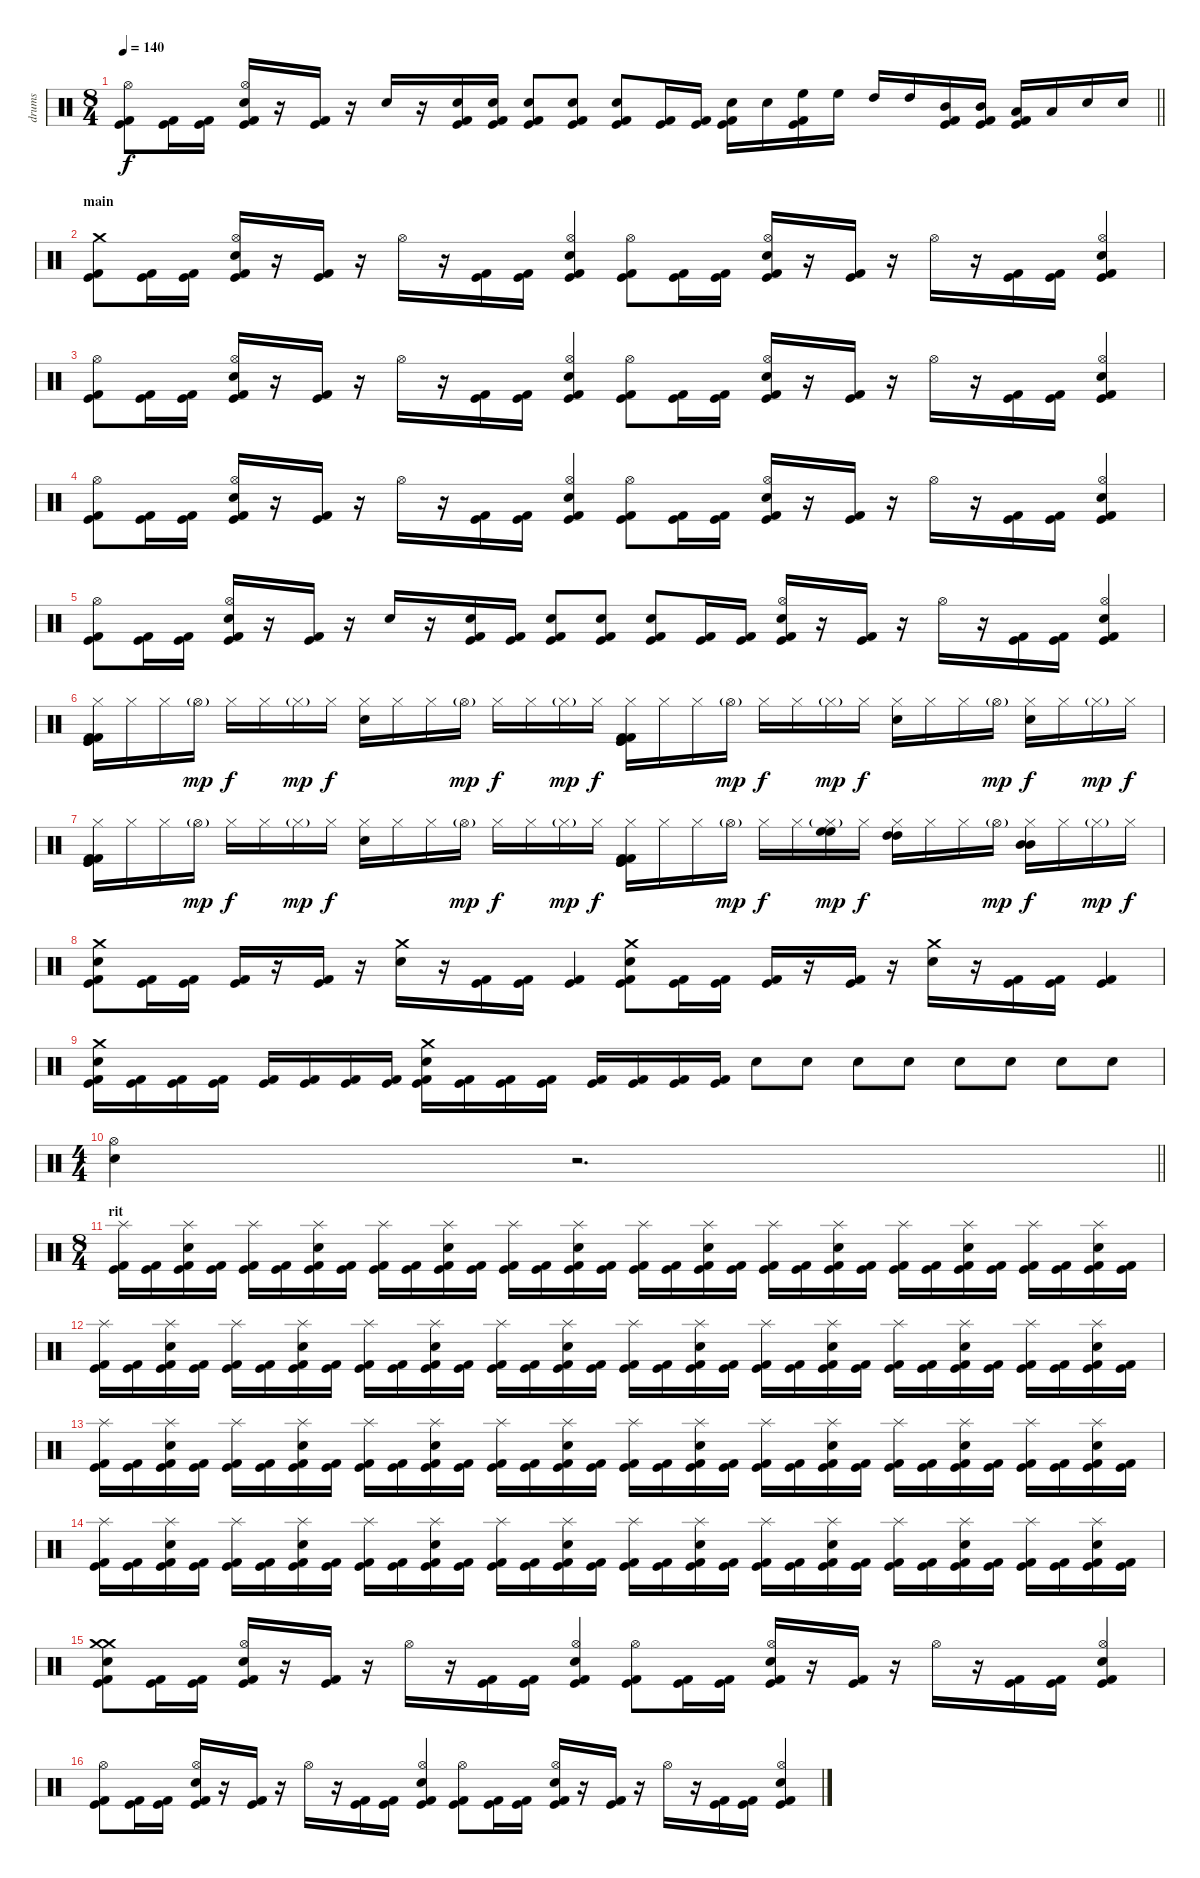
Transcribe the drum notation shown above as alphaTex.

\track ("drums" "drums") {instrument percussion}
\staff {score}
\articulation defaults
\ts (8 4)
\tempo 140
\clef neutral
\barLineRight lightlight
\ks c
("Kick (hit) 2" "Kick (hit)" "Hi-Hat (open)").8{dy f} ("Kick (hit) 2" "Kick (hit)").16 ("Kick (hit) 2" "Kick (hit)").16 ("Kick (hit) 2" "Kick (hit)" "Snare (hit) 2" "Hi-Hat (open)").16 r.16 ("Kick (hit) 2" "Kick (hit)").16 r.16 "Snare (hit) 2".16 r.16 ("Kick (hit)" "Kick (hit) 2" "Snare (hit) 2").16 ("Kick (hit) 2" "Kick (hit)" "Snare (hit) 2").16 ("Kick (hit)" "Kick (hit) 2" "Snare (hit) 2").8 ("Kick (hit)" "Kick (hit) 2" "Snare (hit) 2").8 ("Kick (hit) 2" "Kick (hit)" "Snare (hit) 2").8 ("Kick (hit) 2" "Kick (hit)").16 ("Kick (hit) 2" "Kick (hit)").16 ("Kick (hit) 2" "Kick (hit)" "Snare (hit) 2").16 "Snare (hit) 2".16 ("Kick (hit) 2" "Kick (hit)" "High Floor Tom (hit)").16 "High Floor Tom (hit)".16 "High Tom (hit)".16 "High Tom (hit)".16 ("Kick (hit)" "Kick (hit) 2" "Mid Tom (hit)").16 ("Kick (hit) 2" "Kick (hit)" "Mid Tom (hit)").16 ("Kick (hit)" "Kick (hit) 2" "Low Tom (hit)").16 "Low Tom (hit)".16 "Snare (hit) 2".16 "Snare (hit) 2".16 |
\section ("" "main")
("Kick (hit) 2" "Kick (hit)" "Crash medium (hit)").8 ("Kick (hit) 2" "Kick (hit)").16 ("Kick (hit) 2" "Kick (hit)").16 ("Kick (hit) 2" "Kick (hit)" "Snare (hit) 2" "Hi-Hat (open)").16 r.16 ("Kick (hit) 2" "Kick (hit)").16 r.16 "Hi-Hat (open)".16 r.16 ("Kick (hit)" "Kick (hit) 2").16 ("Kick (hit) 2" "Kick (hit)").16 ("Kick (hit)" "Kick (hit) 2" "Snare (hit) 2" "Hi-Hat (open)").4 ("Kick (hit) 2" "Kick (hit)" "Hi-Hat (open)").8 ("Kick (hit) 2" "Kick (hit)").16 ("Kick (hit) 2" "Kick (hit)").16 ("Kick (hit) 2" "Kick (hit)" "Snare (hit) 2" "Hi-Hat (open)").16 r.16 ("Kick (hit) 2" "Kick (hit)").16 r.16 "Hi-Hat (open)".16 r.16 ("Kick (hit)" "Kick (hit) 2").16 ("Kick (hit) 2" "Kick (hit)").16 ("Kick (hit)" "Kick (hit) 2" "Snare (hit) 2" "Hi-Hat (open)").4 |
("Kick (hit) 2" "Kick (hit)" "Hi-Hat (open)").8 ("Kick (hit) 2" "Kick (hit)").16 ("Kick (hit) 2" "Kick (hit)").16 ("Kick (hit) 2" "Kick (hit)" "Snare (hit) 2" "Hi-Hat (open)").16 r.16 ("Kick (hit) 2" "Kick (hit)").16 r.16 "Hi-Hat (open)".16 r.16 ("Kick (hit)" "Kick (hit) 2").16 ("Kick (hit) 2" "Kick (hit)").16 ("Kick (hit)" "Kick (hit) 2" "Snare (hit) 2" "Hi-Hat (open)").4 ("Kick (hit) 2" "Kick (hit)" "Hi-Hat (open)").8 ("Kick (hit) 2" "Kick (hit)").16 ("Kick (hit) 2" "Kick (hit)").16 ("Kick (hit) 2" "Kick (hit)" "Snare (hit) 2" "Hi-Hat (open)").16 r.16 ("Kick (hit) 2" "Kick (hit)").16 r.16 "Hi-Hat (open)".16 r.16 ("Kick (hit)" "Kick (hit) 2").16 ("Kick (hit) 2" "Kick (hit)").16 ("Kick (hit)" "Kick (hit) 2" "Snare (hit) 2" "Hi-Hat (open)").4 |
("Kick (hit) 2" "Kick (hit)" "Hi-Hat (open)").8 ("Kick (hit) 2" "Kick (hit)").16 ("Kick (hit) 2" "Kick (hit)").16 ("Kick (hit) 2" "Kick (hit)" "Snare (hit) 2" "Hi-Hat (open)").16 r.16 ("Kick (hit) 2" "Kick (hit)").16 r.16 "Hi-Hat (open)".16 r.16 ("Kick (hit)" "Kick (hit) 2").16 ("Kick (hit) 2" "Kick (hit)").16 ("Kick (hit)" "Kick (hit) 2" "Snare (hit) 2" "Hi-Hat (open)").4 ("Kick (hit) 2" "Kick (hit)" "Hi-Hat (open)").8 ("Kick (hit) 2" "Kick (hit)").16 ("Kick (hit) 2" "Kick (hit)").16 ("Kick (hit) 2" "Kick (hit)" "Snare (hit) 2" "Hi-Hat (open)").16 r.16 ("Kick (hit) 2" "Kick (hit)").16 r.16 "Hi-Hat (open)".16 r.16 ("Kick (hit)" "Kick (hit) 2").16 ("Kick (hit) 2" "Kick (hit)").16 ("Kick (hit)" "Kick (hit) 2" "Snare (hit) 2" "Hi-Hat (open)").4 |
("Kick (hit) 2" "Kick (hit)" "Hi-Hat (open)").8 ("Kick (hit) 2" "Kick (hit)").16 ("Kick (hit) 2" "Kick (hit)").16 ("Kick (hit) 2" "Kick (hit)" "Snare (hit) 2" "Hi-Hat (open)").16 r.16 ("Kick (hit) 2" "Kick (hit)").16 r.16 "Snare (hit) 2".16 r.16 ("Kick (hit)" "Kick (hit) 2" "Snare (hit) 2").16 ("Kick (hit) 2" "Kick (hit)").16 ("Kick (hit)" "Kick (hit) 2" "Snare (hit) 2").8 ("Kick (hit)" "Kick (hit) 2" "Snare (hit) 2").8 ("Kick (hit) 2" "Kick (hit)" "Snare (hit) 2").8 ("Kick (hit) 2" "Kick (hit)").16 ("Kick (hit) 2" "Kick (hit)").16 ("Kick (hit) 2" "Kick (hit)" "Snare (hit) 2" "Hi-Hat (open)").16 r.16 ("Kick (hit) 2" "Kick (hit)").16 r.16 "Hi-Hat (open)".16 r.16 ("Kick (hit)" "Kick (hit) 2").16 ("Kick (hit) 2" "Kick (hit)").16 ("Kick (hit)" "Kick (hit) 2" "Snare (hit) 2" "Hi-Hat (open)").4 |
("Kick (hit) 2" "Kick (hit)" "Kick (hit) 2" "Kick (hit)" "Hi-Hat (closed)").16 "Hi-Hat (closed)".16 "Hi-Hat (closed)".16 "Hi-Hat (open)"{g}.16{dy mp} "Hi-Hat (closed)".16{dy f} "Hi-Hat (closed)".16 "Hi-Hat (closed)"{g}.16{dy mp} "Hi-Hat (closed)".16{dy f} ("Snare (hit) 2" "Hi-Hat (closed)").16 "Hi-Hat (closed)".16 "Hi-Hat (closed)".16 "Hi-Hat (open)"{g}.16{dy mp} "Hi-Hat (closed)".16{dy f} "Hi-Hat (closed)".16 "Hi-Hat (closed)"{g}.16{dy mp} "Hi-Hat (closed)".16{dy f} ("Kick (hit) 2" "Kick (hit)" "Kick (hit) 2" "Kick (hit)" "Hi-Hat (closed)").16 "Hi-Hat (closed)".16 "Hi-Hat (closed)".16 "Hi-Hat (open)"{g}.16{dy mp} "Hi-Hat (closed)".16{dy f} "Hi-Hat (closed)".16 "Hi-Hat (closed)"{g}.16{dy mp} "Hi-Hat (closed)".16{dy f} ("Snare (hit) 2" "Hi-Hat (closed)").16 "Hi-Hat (closed)".16 "Hi-Hat (closed)".16 "Hi-Hat (open)"{g}.16{dy mp} ("Snare (hit) 2" "Hi-Hat (closed)").16{dy f} "Hi-Hat (closed)".16 "Hi-Hat (closed)"{g}.16{dy mp} "Hi-Hat (closed)".16{dy f} |
("Kick (hit) 2" "Kick (hit)" "Kick (hit) 2" "Kick (hit)" "Hi-Hat (closed)").16 "Hi-Hat (closed)".16 "Hi-Hat (closed)".16 "Hi-Hat (open)"{g}.16{dy mp} "Hi-Hat (closed)".16{dy f} "Hi-Hat (closed)".16 "Hi-Hat (closed)"{g}.16{dy mp} "Hi-Hat (closed)".16{dy f} ("Snare (hit) 2" "Hi-Hat (closed)").16 "Hi-Hat (closed)".16 "Hi-Hat (closed)".16 "Hi-Hat (open)"{g}.16{dy mp} "Hi-Hat (closed)".16{dy f} "Hi-Hat (closed)".16 "Hi-Hat (closed)"{g}.16{dy mp} "Hi-Hat (closed)".16{dy f} ("Kick (hit) 2" "Kick (hit)" "Kick (hit) 2" "Kick (hit)" "Hi-Hat (closed)").16 "Hi-Hat (closed)".16 "Hi-Hat (closed)".16 "Hi-Hat (open)"{g}.16{dy mp} "Hi-Hat (closed)".16{dy f} "Hi-Hat (closed)".16 ("High Floor Tom (hit)" "High Floor Tom (hit)" "Hi-Hat (closed)"{g}).16{dy mp} "Hi-Hat (closed)".16{dy f} ("High Tom (hit)" "High Tom (hit)" "Hi-Hat (closed)").16 "Hi-Hat (closed)".16 "Hi-Hat (closed)".16 "Hi-Hat (open)"{g}.16{dy mp} ("Mid Tom (hit)" "Mid Tom (hit)" "Hi-Hat (closed)").16{dy f} "Hi-Hat (closed)".16 "Hi-Hat (closed)"{g}.16{dy mp} "Hi-Hat (closed)".16{dy f} |
("Kick (hit) 2" "Kick (hit)" "Snare (hit) 2" "Crash medium (hit)").8 ("Kick (hit) 2" "Kick (hit)").16 ("Kick (hit) 2" "Kick (hit)").16 ("Kick (hit) 2" "Kick (hit)").16 r.16 ("Kick (hit) 2" "Kick (hit)").16 r.16 ("Snare (hit) 2" "Crash medium (hit)").16 r.16 ("Kick (hit)" "Kick (hit) 2").16 ("Kick (hit) 2" "Kick (hit)").16 ("Kick (hit)" "Kick (hit) 2").4 ("Kick (hit) 2" "Kick (hit)" "Snare (hit) 2" "Crash medium (hit)").8 ("Kick (hit) 2" "Kick (hit)").16 ("Kick (hit) 2" "Kick (hit)").16 ("Kick (hit) 2" "Kick (hit)").16 r.16 ("Kick (hit) 2" "Kick (hit)").16 r.16 ("Snare (hit) 2" "Crash medium (hit)").16 r.16 ("Kick (hit)" "Kick (hit) 2").16 ("Kick (hit) 2" "Kick (hit)").16 ("Kick (hit)" "Kick (hit) 2").4 |
("Kick (hit)" "Kick (hit) 2" "Snare (hit) 2" "Crash medium (hit)").16 ("Kick (hit)" "Kick (hit) 2").16 ("Kick (hit)" "Kick (hit) 2").16 ("Kick (hit)" "Kick (hit) 2").16 ("Kick (hit)" "Kick (hit) 2").16 ("Kick (hit)" "Kick (hit) 2").16 ("Kick (hit)" "Kick (hit) 2").16 ("Kick (hit)" "Kick (hit) 2").16 ("Kick (hit) 2" "Kick (hit)" "Snare (hit) 2" "Crash medium (hit)").16 ("Kick (hit) 2" "Kick (hit)").16 ("Kick (hit) 2" "Kick (hit)").16 ("Kick (hit) 2" "Kick (hit)").16 ("Kick (hit) 2" "Kick (hit)").16 ("Kick (hit) 2" "Kick (hit)").16 ("Kick (hit) 2" "Kick (hit)").16 ("Kick (hit) 2" "Kick (hit)").16 "Snare (hit) 2".8 "Snare (hit) 2".8 "Snare (hit) 2".8 "Snare (hit) 2".8 "Snare (hit) 2".8 "Snare (hit) 2".8 "Snare (hit) 2".8 "Snare (hit) 2".8 |
\ts (4 4)
\barLineRight lightlight
("Snare (hit) 2" "Hi-Hat (open)").4 r.2{d} |
\ts (8 4)
\section ("" "rit")
("Kick (hit) 2" "Kick (hit)" "Splash (hit)").16 ("Kick (hit) 2" "Kick (hit)").16 ("Kick (hit) 2" "Kick (hit)" "Snare (hit) 2" "Splash (hit)").16 ("Kick (hit) 2" "Kick (hit)").16 ("Kick (hit) 2" "Kick (hit)" "Splash (hit)").16 ("Kick (hit) 2" "Kick (hit)").16 ("Kick (hit) 2" "Kick (hit)" "Snare (hit) 2" "Splash (hit)").16 ("Kick (hit) 2" "Kick (hit)").16 ("Kick (hit) 2" "Kick (hit)" "Splash (hit)").16 ("Kick (hit) 2" "Kick (hit)").16 ("Kick (hit) 2" "Kick (hit)" "Snare (hit) 2" "Splash (hit)").16 ("Kick (hit) 2" "Kick (hit)").16 ("Kick (hit) 2" "Kick (hit)" "Splash (hit)").16 ("Kick (hit) 2" "Kick (hit)").16 ("Kick (hit) 2" "Kick (hit)" "Snare (hit) 2" "Splash (hit)").16 ("Kick (hit) 2" "Kick (hit)").16 ("Kick (hit) 2" "Kick (hit)" "Splash (hit)").16 ("Kick (hit) 2" "Kick (hit)").16 ("Kick (hit) 2" "Kick (hit)" "Snare (hit) 2" "Splash (hit)").16 ("Kick (hit) 2" "Kick (hit)").16 ("Kick (hit) 2" "Kick (hit)" "Splash (hit)").16 ("Kick (hit) 2" "Kick (hit)").16 ("Kick (hit) 2" "Kick (hit)" "Snare (hit) 2" "Splash (hit)").16 ("Kick (hit) 2" "Kick (hit)").16 ("Kick (hit) 2" "Kick (hit)" "Splash (hit)").16 ("Kick (hit) 2" "Kick (hit)").16 ("Kick (hit) 2" "Kick (hit)" "Snare (hit) 2" "Splash (hit)").16 ("Kick (hit) 2" "Kick (hit)").16 ("Kick (hit) 2" "Kick (hit)" "Splash (hit)").16 ("Kick (hit) 2" "Kick (hit)").16 ("Kick (hit) 2" "Kick (hit)" "Snare (hit) 2" "Splash (hit)").16 ("Kick (hit) 2" "Kick (hit)").16 |
("Kick (hit) 2" "Kick (hit)" "Splash (hit)").16 ("Kick (hit) 2" "Kick (hit)").16 ("Kick (hit) 2" "Kick (hit)" "Snare (hit) 2" "Splash (hit)").16 ("Kick (hit) 2" "Kick (hit)").16 ("Kick (hit) 2" "Kick (hit)" "Splash (hit)").16 ("Kick (hit) 2" "Kick (hit)").16 ("Kick (hit) 2" "Kick (hit)" "Snare (hit) 2" "Splash (hit)").16 ("Kick (hit) 2" "Kick (hit)").16 ("Kick (hit) 2" "Kick (hit)" "Splash (hit)").16 ("Kick (hit) 2" "Kick (hit)").16 ("Kick (hit) 2" "Kick (hit)" "Snare (hit) 2" "Splash (hit)").16 ("Kick (hit) 2" "Kick (hit)").16 ("Kick (hit) 2" "Kick (hit)" "Splash (hit)").16 ("Kick (hit) 2" "Kick (hit)").16 ("Kick (hit) 2" "Kick (hit)" "Snare (hit) 2" "Splash (hit)").16 ("Kick (hit) 2" "Kick (hit)").16 ("Kick (hit) 2" "Kick (hit)" "Splash (hit)").16 ("Kick (hit) 2" "Kick (hit)").16 ("Kick (hit) 2" "Kick (hit)" "Snare (hit) 2" "Splash (hit)").16 ("Kick (hit) 2" "Kick (hit)").16 ("Kick (hit) 2" "Kick (hit)" "Splash (hit)").16 ("Kick (hit) 2" "Kick (hit)").16 ("Kick (hit) 2" "Kick (hit)" "Snare (hit) 2" "Splash (hit)").16 ("Kick (hit) 2" "Kick (hit)").16 ("Kick (hit) 2" "Kick (hit)" "Splash (hit)").16 ("Kick (hit) 2" "Kick (hit)").16 ("Kick (hit) 2" "Kick (hit)" "Snare (hit) 2" "Splash (hit)").16 ("Kick (hit) 2" "Kick (hit)").16 ("Kick (hit) 2" "Kick (hit)" "Splash (hit)").16 ("Kick (hit) 2" "Kick (hit)").16 ("Kick (hit) 2" "Kick (hit)" "Snare (hit) 2" "Splash (hit)").16 ("Kick (hit) 2" "Kick (hit)").16 |
("Kick (hit) 2" "Kick (hit)" "Splash (hit)").16 ("Kick (hit) 2" "Kick (hit)").16 ("Kick (hit) 2" "Kick (hit)" "Snare (hit) 2" "Splash (hit)").16 ("Kick (hit) 2" "Kick (hit)").16 ("Kick (hit) 2" "Kick (hit)" "Splash (hit)").16 ("Kick (hit) 2" "Kick (hit)").16 ("Kick (hit) 2" "Kick (hit)" "Snare (hit) 2" "Splash (hit)").16 ("Kick (hit) 2" "Kick (hit)").16 ("Kick (hit) 2" "Kick (hit)" "Splash (hit)").16 ("Kick (hit) 2" "Kick (hit)").16 ("Kick (hit) 2" "Kick (hit)" "Snare (hit) 2" "Splash (hit)").16 ("Kick (hit) 2" "Kick (hit)").16 ("Kick (hit) 2" "Kick (hit)" "Splash (hit)").16 ("Kick (hit) 2" "Kick (hit)").16 ("Kick (hit) 2" "Kick (hit)" "Snare (hit) 2" "Splash (hit)").16 ("Kick (hit) 2" "Kick (hit)").16 ("Kick (hit) 2" "Kick (hit)" "Splash (hit)").16 ("Kick (hit) 2" "Kick (hit)").16 ("Kick (hit) 2" "Kick (hit)" "Snare (hit) 2" "Splash (hit)").16 ("Kick (hit) 2" "Kick (hit)").16 ("Kick (hit) 2" "Kick (hit)" "Splash (hit)").16 ("Kick (hit) 2" "Kick (hit)").16 ("Kick (hit) 2" "Kick (hit)" "Snare (hit) 2" "Splash (hit)").16 ("Kick (hit) 2" "Kick (hit)").16 ("Kick (hit) 2" "Kick (hit)" "Splash (hit)").16 ("Kick (hit) 2" "Kick (hit)").16 ("Kick (hit) 2" "Kick (hit)" "Snare (hit) 2" "Splash (hit)").16 ("Kick (hit) 2" "Kick (hit)").16 ("Kick (hit) 2" "Kick (hit)" "Splash (hit)").16 ("Kick (hit) 2" "Kick (hit)").16 ("Kick (hit) 2" "Kick (hit)" "Snare (hit) 2" "Splash (hit)").16 ("Kick (hit) 2" "Kick (hit)").16 |
("Kick (hit) 2" "Kick (hit)" "Splash (hit)").16 ("Kick (hit) 2" "Kick (hit)").16 ("Kick (hit) 2" "Kick (hit)" "Snare (hit) 2" "Splash (hit)").16 ("Kick (hit) 2" "Kick (hit)").16 ("Kick (hit) 2" "Kick (hit)" "Splash (hit)").16 ("Kick (hit) 2" "Kick (hit)").16 ("Kick (hit) 2" "Kick (hit)" "Snare (hit) 2" "Splash (hit)").16 ("Kick (hit) 2" "Kick (hit)").16 ("Kick (hit) 2" "Kick (hit)" "Splash (hit)").16 ("Kick (hit) 2" "Kick (hit)").16 ("Kick (hit) 2" "Kick (hit)" "Snare (hit) 2" "Splash (hit)").16 ("Kick (hit) 2" "Kick (hit)").16 ("Kick (hit) 2" "Kick (hit)" "Splash (hit)").16 ("Kick (hit) 2" "Kick (hit)").16 ("Kick (hit) 2" "Kick (hit)" "Snare (hit) 2" "Splash (hit)").16 ("Kick (hit) 2" "Kick (hit)").16 ("Kick (hit) 2" "Kick (hit)" "Splash (hit)").16 ("Kick (hit) 2" "Kick (hit)").16 ("Kick (hit) 2" "Kick (hit)" "Snare (hit) 2" "Splash (hit)").16 ("Kick (hit) 2" "Kick (hit)").16 ("Kick (hit) 2" "Kick (hit)" "Splash (hit)").16 ("Kick (hit) 2" "Kick (hit)").16 ("Kick (hit) 2" "Kick (hit)" "Snare (hit) 2" "Splash (hit)").16 ("Kick (hit) 2" "Kick (hit)").16 ("Kick (hit) 2" "Kick (hit)" "Splash (hit)").16 ("Kick (hit) 2" "Kick (hit)").16 ("Kick (hit) 2" "Kick (hit)" "Snare (hit) 2" "Splash (hit)").16 ("Kick (hit) 2" "Kick (hit)").16 ("Kick (hit) 2" "Kick (hit)" "Splash (hit)").16 ("Kick (hit) 2" "Kick (hit)").16 ("Kick (hit) 2" "Kick (hit)" "Snare (hit) 2" "Splash (hit)").16 ("Kick (hit) 2" "Kick (hit)").16 |
("Kick (hit) 2" "Kick (hit)" "Snare (hit) 2" "Crash medium (hit)" "Crash medium (hit)").8 ("Kick (hit) 2" "Kick (hit)").16 ("Kick (hit) 2" "Kick (hit)").16 ("Kick (hit) 2" "Kick (hit)" "Snare (hit) 2" "Hi-Hat (open)").16 r.16 ("Kick (hit) 2" "Kick (hit)").16 r.16 "Hi-Hat (open)".16 r.16 ("Kick (hit)" "Kick (hit) 2").16 ("Kick (hit) 2" "Kick (hit)").16 ("Kick (hit)" "Kick (hit) 2" "Snare (hit) 2" "Hi-Hat (open)").4 ("Kick (hit) 2" "Kick (hit)" "Hi-Hat (open)").8 ("Kick (hit) 2" "Kick (hit)").16 ("Kick (hit) 2" "Kick (hit)").16 ("Kick (hit) 2" "Kick (hit)" "Snare (hit) 2" "Hi-Hat (open)").16 r.16 ("Kick (hit) 2" "Kick (hit)").16 r.16 "Hi-Hat (open)".16 r.16 ("Kick (hit)" "Kick (hit) 2").16 ("Kick (hit) 2" "Kick (hit)").16 ("Kick (hit)" "Kick (hit) 2" "Snare (hit) 2" "Hi-Hat (open)").4 |
("Kick (hit) 2" "Kick (hit)" "Hi-Hat (open)").8 ("Kick (hit) 2" "Kick (hit)").16 ("Kick (hit) 2" "Kick (hit)").16 ("Kick (hit) 2" "Kick (hit)" "Snare (hit) 2" "Hi-Hat (open)").16 r.16 ("Kick (hit) 2" "Kick (hit)").16 r.16 "Hi-Hat (open)".16 r.16 ("Kick (hit)" "Kick (hit) 2").16 ("Kick (hit) 2" "Kick (hit)").16 ("Kick (hit)" "Kick (hit) 2" "Snare (hit) 2" "Hi-Hat (open)").4 ("Kick (hit) 2" "Kick (hit)" "Hi-Hat (open)").8 ("Kick (hit) 2" "Kick (hit)").16 ("Kick (hit) 2" "Kick (hit)").16 ("Kick (hit) 2" "Kick (hit)" "Snare (hit) 2" "Hi-Hat (open)").16 r.16 ("Kick (hit) 2" "Kick (hit)").16 r.16 "Hi-Hat (open)".16 r.16 ("Kick (hit)" "Kick (hit) 2").16 ("Kick (hit) 2" "Kick (hit)").16 ("Kick (hit)" "Kick (hit) 2" "Snare (hit) 2" "Hi-Hat (open)").4
